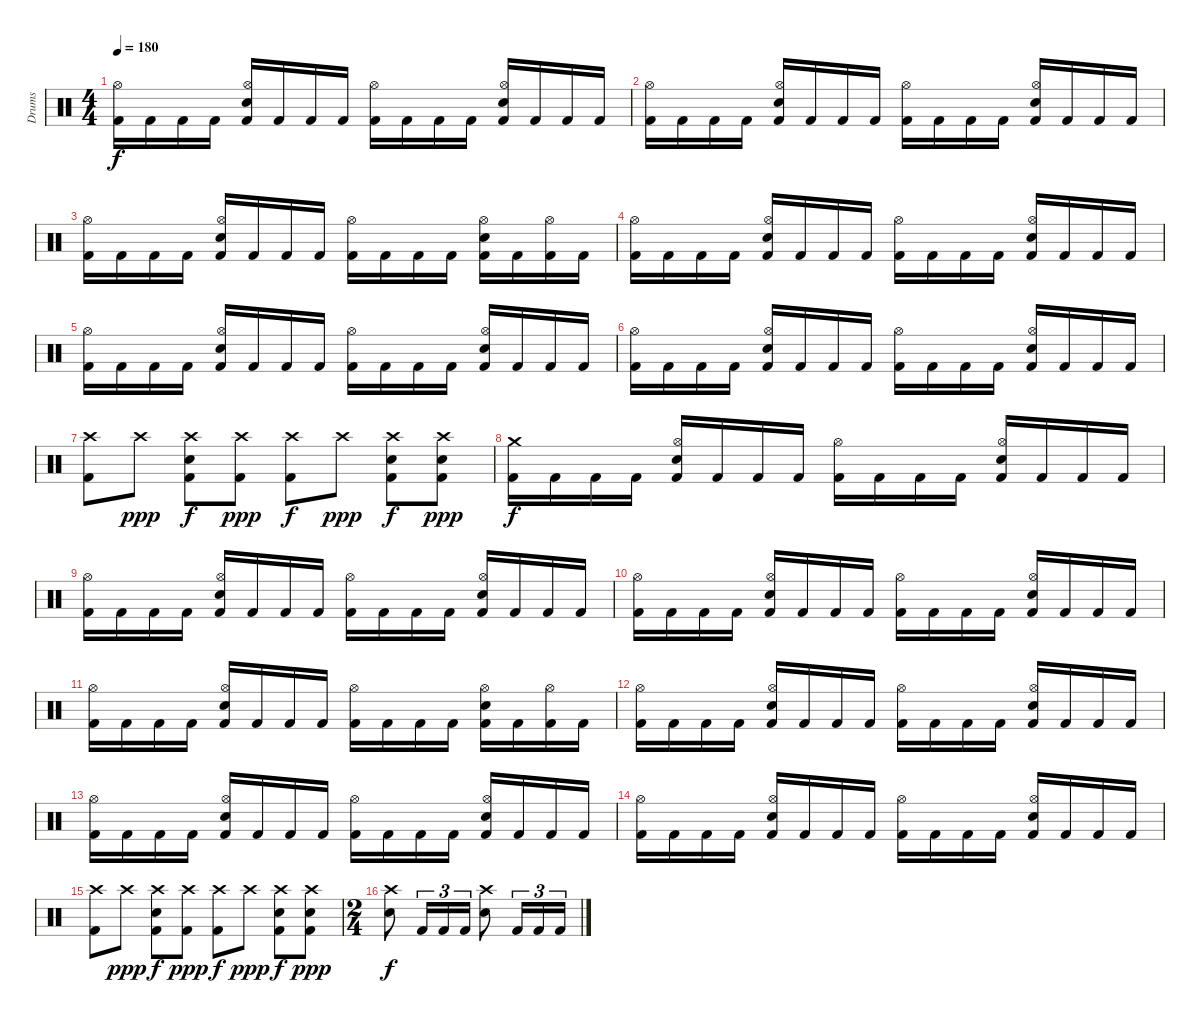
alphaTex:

\track ("Drums" "Drums") {instrument percussion}
\staff {score}
\articulation defaults
\ts (4 4)
\tempo 180
\clef neutral
\ks c
("Kick (hit) 2" "Hi-Hat (open)").16{dy f} "Kick (hit) 2".16 "Kick (hit) 2".16 "Kick (hit) 2".16 ("Kick (hit) 2" "Hi-Hat (open)" "Electric Snare (hit)").16 "Kick (hit) 2".16 "Kick (hit) 2".16 "Kick (hit) 2".16 ("Kick (hit) 2" "Hi-Hat (open)").16 "Kick (hit) 2".16 "Kick (hit) 2".16 "Kick (hit) 2".16 ("Kick (hit) 2" "Hi-Hat (open)" "Electric Snare (hit)").16 "Kick (hit) 2".16 "Kick (hit) 2".16 "Kick (hit) 2".16 |
("Kick (hit) 2" "Hi-Hat (open)").16 "Kick (hit) 2".16 "Kick (hit) 2".16 "Kick (hit) 2".16 ("Kick (hit) 2" "Hi-Hat (open)" "Electric Snare (hit)").16 "Kick (hit) 2".16 "Kick (hit) 2".16 "Kick (hit) 2".16 ("Kick (hit) 2" "Hi-Hat (open)").16 "Kick (hit) 2".16 "Kick (hit) 2".16 "Kick (hit) 2".16 ("Kick (hit) 2" "Hi-Hat (open)" "Electric Snare (hit)").16 "Kick (hit) 2".16 "Kick (hit) 2".16 "Kick (hit) 2".16 |
("Kick (hit) 2" "Hi-Hat (open)").16 "Kick (hit) 2".16 "Kick (hit) 2".16 "Kick (hit) 2".16 ("Kick (hit) 2" "Hi-Hat (open)" "Electric Snare (hit)").16 "Kick (hit) 2".16 "Kick (hit) 2".16 "Kick (hit) 2".16 ("Kick (hit) 2" "Hi-Hat (open)").16 "Kick (hit) 2".16 "Kick (hit) 2".16 "Kick (hit) 2".16 ("Kick (hit) 2" "Hi-Hat (open)" "Electric Snare (hit)").16 "Kick (hit) 2".16 ("Kick (hit) 2" "Hi-Hat (open)").16 "Kick (hit) 2".16 |
("Kick (hit) 2" "Hi-Hat (open)").16 "Kick (hit) 2".16 "Kick (hit) 2".16 "Kick (hit) 2".16 ("Kick (hit) 2" "Hi-Hat (open)" "Electric Snare (hit)").16 "Kick (hit) 2".16 "Kick (hit) 2".16 "Kick (hit) 2".16 ("Kick (hit) 2" "Hi-Hat (open)").16 "Kick (hit) 2".16 "Kick (hit) 2".16 "Kick (hit) 2".16 ("Kick (hit) 2" "Hi-Hat (open)" "Electric Snare (hit)").16 "Kick (hit) 2".16 "Kick (hit) 2".16 "Kick (hit) 2".16 |
("Kick (hit) 2" "Hi-Hat (open)").16 "Kick (hit) 2".16 "Kick (hit) 2".16 "Kick (hit) 2".16 ("Kick (hit) 2" "Hi-Hat (open)" "Electric Snare (hit)").16 "Kick (hit) 2".16 "Kick (hit) 2".16 "Kick (hit) 2".16 ("Kick (hit) 2" "Hi-Hat (open)").16 "Kick (hit) 2".16 "Kick (hit) 2".16 "Kick (hit) 2".16 ("Kick (hit) 2" "Hi-Hat (open)" "Electric Snare (hit)").16 "Kick (hit) 2".16 "Kick (hit) 2".16 "Kick (hit) 2".16 |
("Kick (hit) 2" "Hi-Hat (open)").16 "Kick (hit) 2".16 "Kick (hit) 2".16 "Kick (hit) 2".16 ("Kick (hit) 2" "Hi-Hat (open)" "Electric Snare (hit)").16 "Kick (hit) 2".16 "Kick (hit) 2".16 "Kick (hit) 2".16 ("Kick (hit) 2" "Hi-Hat (open)").16 "Kick (hit) 2".16 "Kick (hit) 2".16 "Kick (hit) 2".16 ("Kick (hit) 2" "Hi-Hat (open)" "Electric Snare (hit)").16 "Kick (hit) 2".16 "Kick (hit) 2".16 "Kick (hit) 2".16 |
("Crash high (hit)" "Kick (hit) 2").8 "Crash high (hit)".8{dy ppp} ("Crash high (hit)" "Kick (hit) 2" "Electric Snare (hit)").8{dy f} ("Crash high (hit)" "Kick (hit) 2").8{dy ppp} ("Crash high (hit)" "Kick (hit) 2").8{dy f} "Crash high (hit)".8{dy ppp} ("Crash high (hit)" "Kick (hit) 2" "Electric Snare (hit)").8{dy f} ("Crash high (hit)" "Kick (hit) 2" "Electric Snare (hit)").8{dy ppp} |
("Kick (hit) 2" "Crash medium (hit)").16{dy f} "Kick (hit) 2".16 "Kick (hit) 2".16 "Kick (hit) 2".16 ("Kick (hit) 2" "Hi-Hat (open)" "Electric Snare (hit)").16 "Kick (hit) 2".16 "Kick (hit) 2".16 "Kick (hit) 2".16 ("Kick (hit) 2" "Hi-Hat (open)").16 "Kick (hit) 2".16 "Kick (hit) 2".16 "Kick (hit) 2".16 ("Kick (hit) 2" "Hi-Hat (open)" "Electric Snare (hit)").16 "Kick (hit) 2".16 "Kick (hit) 2".16 "Kick (hit) 2".16 |
("Kick (hit) 2" "Hi-Hat (open)").16 "Kick (hit) 2".16 "Kick (hit) 2".16 "Kick (hit) 2".16 ("Kick (hit) 2" "Hi-Hat (open)" "Electric Snare (hit)").16 "Kick (hit) 2".16 "Kick (hit) 2".16 "Kick (hit) 2".16 ("Kick (hit) 2" "Hi-Hat (open)").16 "Kick (hit) 2".16 "Kick (hit) 2".16 "Kick (hit) 2".16 ("Kick (hit) 2" "Hi-Hat (open)" "Electric Snare (hit)").16 "Kick (hit) 2".16 "Kick (hit) 2".16 "Kick (hit) 2".16 |
("Kick (hit) 2" "Hi-Hat (open)").16 "Kick (hit) 2".16 "Kick (hit) 2".16 "Kick (hit) 2".16 ("Kick (hit) 2" "Hi-Hat (open)" "Electric Snare (hit)").16 "Kick (hit) 2".16 "Kick (hit) 2".16 "Kick (hit) 2".16 ("Kick (hit) 2" "Hi-Hat (open)").16 "Kick (hit) 2".16 "Kick (hit) 2".16 "Kick (hit) 2".16 ("Kick (hit) 2" "Hi-Hat (open)" "Electric Snare (hit)").16 "Kick (hit) 2".16 "Kick (hit) 2".16 "Kick (hit) 2".16 |
("Kick (hit) 2" "Hi-Hat (open)").16 "Kick (hit) 2".16 "Kick (hit) 2".16 "Kick (hit) 2".16 ("Kick (hit) 2" "Hi-Hat (open)" "Electric Snare (hit)").16 "Kick (hit) 2".16 "Kick (hit) 2".16 "Kick (hit) 2".16 ("Kick (hit) 2" "Hi-Hat (open)").16 "Kick (hit) 2".16 "Kick (hit) 2".16 "Kick (hit) 2".16 ("Kick (hit) 2" "Hi-Hat (open)" "Electric Snare (hit)").16 "Kick (hit) 2".16 ("Kick (hit) 2" "Hi-Hat (open)").16 "Kick (hit) 2".16 |
("Kick (hit) 2" "Hi-Hat (open)").16 "Kick (hit) 2".16 "Kick (hit) 2".16 "Kick (hit) 2".16 ("Kick (hit) 2" "Hi-Hat (open)" "Electric Snare (hit)").16 "Kick (hit) 2".16 "Kick (hit) 2".16 "Kick (hit) 2".16 ("Kick (hit) 2" "Hi-Hat (open)").16 "Kick (hit) 2".16 "Kick (hit) 2".16 "Kick (hit) 2".16 ("Kick (hit) 2" "Hi-Hat (open)" "Electric Snare (hit)").16 "Kick (hit) 2".16 "Kick (hit) 2".16 "Kick (hit) 2".16 |
("Kick (hit) 2" "Hi-Hat (open)").16 "Kick (hit) 2".16 "Kick (hit) 2".16 "Kick (hit) 2".16 ("Kick (hit) 2" "Hi-Hat (open)" "Electric Snare (hit)").16 "Kick (hit) 2".16 "Kick (hit) 2".16 "Kick (hit) 2".16 ("Kick (hit) 2" "Hi-Hat (open)").16 "Kick (hit) 2".16 "Kick (hit) 2".16 "Kick (hit) 2".16 ("Kick (hit) 2" "Hi-Hat (open)" "Electric Snare (hit)").16 "Kick (hit) 2".16 "Kick (hit) 2".16 "Kick (hit) 2".16 |
("Kick (hit) 2" "Hi-Hat (open)").16 "Kick (hit) 2".16 "Kick (hit) 2".16 "Kick (hit) 2".16 ("Kick (hit) 2" "Hi-Hat (open)" "Electric Snare (hit)").16 "Kick (hit) 2".16 "Kick (hit) 2".16 "Kick (hit) 2".16 ("Kick (hit) 2" "Hi-Hat (open)").16 "Kick (hit) 2".16 "Kick (hit) 2".16 "Kick (hit) 2".16 ("Kick (hit) 2" "Hi-Hat (open)" "Electric Snare (hit)").16 "Kick (hit) 2".16 "Kick (hit) 2".16 "Kick (hit) 2".16 |
("Crash high (hit)" "Kick (hit) 2").8 "Crash high (hit)".8{dy ppp} ("Crash high (hit)" "Kick (hit) 2" "Electric Snare (hit)").8{dy f} ("Crash high (hit)" "Kick (hit) 2").8{dy ppp} ("Crash high (hit)" "Kick (hit) 2").8{dy f} "Crash high (hit)".8{dy ppp} ("Crash high (hit)" "Kick (hit) 2" "Electric Snare (hit)").8{dy f} ("Crash high (hit)" "Kick (hit) 2" "Electric Snare (hit)").8{dy ppp} |
\ts (2 4)
("Crash high (hit)" "Electric Snare (hit)").8{dy f} "Kick (hit) 2".16{tu (3 2)} "Kick (hit) 2".16{tu (3 2)} "Kick (hit) 2".16{tu (3 2)} ("Crash high (hit)" "Electric Snare (hit)").8 "Kick (hit) 2".16{tu (3 2)} "Kick (hit) 2".16{tu (3 2)} "Kick (hit) 2".16{tu (3 2)}
